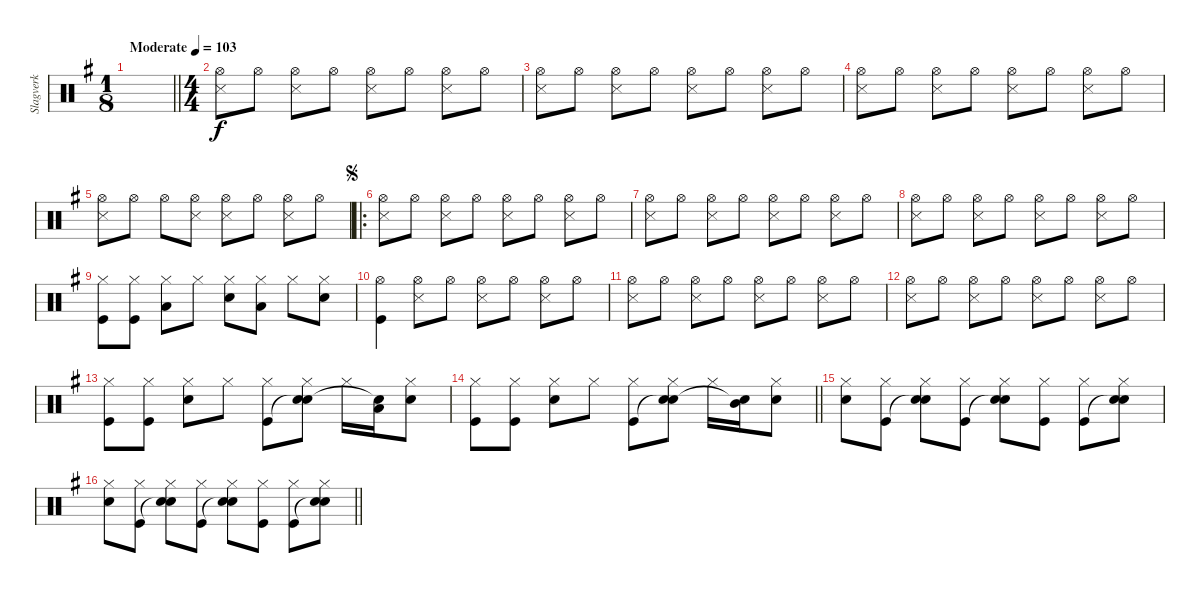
\track ("Slagverk" "Slagverk") {instrument percussion}
\staff {score}
\articulation defaults
\ts (1 8)
\tempo (103 "Moderate")
\clef neutral
\barLineRight lightlight
\ks g
|
\ts (4 4)
("Snare (side stick) 3" "Hi-Hat (open)").8 "Hi-Hat (open)".8 ("Snare (side stick) 3" "Hi-Hat (open)").8 "Hi-Hat (open)".8 ("Snare (side stick) 3" "Hi-Hat (open)").8 "Hi-Hat (open)".8 ("Snare (side stick) 3" "Hi-Hat (open)").8 "Hi-Hat (open)".8 |
("Snare (side stick) 3" "Hi-Hat (open)").8 "Hi-Hat (open)".8 ("Snare (side stick) 3" "Hi-Hat (open)").8 "Hi-Hat (open)".8 ("Snare (side stick) 3" "Hi-Hat (open)").8 "Hi-Hat (open)".8 ("Snare (side stick) 3" "Hi-Hat (open)").8 "Hi-Hat (open)".8 |
("Snare (side stick) 3" "Hi-Hat (open)").8 "Hi-Hat (open)".8 ("Snare (side stick) 3" "Hi-Hat (open)").8 "Hi-Hat (open)".8 ("Snare (side stick) 3" "Hi-Hat (open)").8 "Hi-Hat (open)".8 ("Snare (side stick) 3" "Hi-Hat (open)").8 "Hi-Hat (open)".8 |
("Snare (side stick) 3" "Hi-Hat (open)").8 "Hi-Hat (open)".8 "Hi-Hat (open)".8 ("Snare (side stick) 3" "Hi-Hat (open)").8 ("Snare (side stick) 3" "Hi-Hat (open)").8 "Hi-Hat (open)".8 ("Snare (side stick) 3" "Hi-Hat (open)").8 "Hi-Hat (open)".8 |
\ro
\jump segno
("Snare (side stick) 3" "Hi-Hat (open)").8 "Hi-Hat (open)".8 ("Snare (side stick) 3" "Hi-Hat (open)").8 "Hi-Hat (open)".8 ("Snare (side stick) 3" "Hi-Hat (open)").8 "Hi-Hat (open)".8 ("Snare (side stick) 3" "Hi-Hat (open)").8 "Hi-Hat (open)".8 |
("Snare (side stick) 3" "Hi-Hat (open)").8 "Hi-Hat (open)".8 ("Snare (side stick) 3" "Hi-Hat (open)").8 "Hi-Hat (open)".8 ("Snare (side stick) 3" "Hi-Hat (open)").8 "Hi-Hat (open)".8 ("Snare (side stick) 3" "Hi-Hat (open)").8 "Hi-Hat (open)".8 |
("Snare (side stick) 3" "Hi-Hat (open)").8 "Hi-Hat (open)".8 ("Snare (side stick) 3" "Hi-Hat (open)").8 "Hi-Hat (open)".8 ("Snare (side stick) 3" "Hi-Hat (open)").8 "Hi-Hat (open)".8 ("Snare (side stick) 3" "Hi-Hat (open)").8 "Hi-Hat (open)".8 |
("Kick (hit)" "Hi-Hat (closed)").8 ("Kick (hit)" "Hi-Hat (closed)").8 ("Low Tom (hit)" "Hi-Hat (closed)").8 "Hi-Hat (closed)".8 ("Snare (hit) 2" "Hi-Hat (closed)").8 ("Low Tom (hit)" "Hi-Hat (closed)").8 "Hi-Hat (closed)".8 ("Snare (hit) 2" "Hi-Hat (closed)").8 |
("Kick (hit)" "Hi-Hat (open)").4 ("Snare (side stick) 3" "Hi-Hat (open)").8 "Hi-Hat (open)".8 ("Snare (side stick) 3" "Hi-Hat (open)").8 "Hi-Hat (open)".8 ("Snare (side stick) 3" "Hi-Hat (open)").8 "Hi-Hat (open)".8 |
("Snare (side stick) 3" "Hi-Hat (open)").8 "Hi-Hat (open)".8 ("Snare (side stick) 3" "Hi-Hat (open)").8 "Hi-Hat (open)".8 ("Snare (side stick) 3" "Hi-Hat (open)").8 "Hi-Hat (open)".8 ("Snare (side stick) 3" "Hi-Hat (open)").8 "Hi-Hat (open)".8 |
("Snare (side stick) 3" "Hi-Hat (open)").8 "Hi-Hat (open)".8 ("Snare (side stick) 3" "Hi-Hat (open)").8 "Hi-Hat (open)".8 ("Snare (side stick) 3" "Hi-Hat (open)").8 "Hi-Hat (open)".8 ("Snare (side stick) 3" "Hi-Hat (open)").8 "Hi-Hat (open)".8 |
("Kick (hit)" "Hi-Hat (closed)").8 ("Kick (hit)" "Hi-Hat (closed)").8 ("Snare (hit) 2" "Hi-Hat (closed)").8 "Hi-Hat (closed)".8 ("Kick (hit)" "Hi-Hat (closed)").8 ("Snare (hit)"{t} "Snare (hit) 2" "Hi-Hat (closed)").8 "Hi-Hat (closed)".16 ("Low Tom (hit)" "Snare (hit)"{t}).16 ("Snare (hit) 2" "Hi-Hat (closed)").8 |
\barLineRight lightlight
("Kick (hit)" "Hi-Hat (closed)").8 ("Kick (hit)" "Hi-Hat (closed)").8 ("Snare (hit) 2" "Hi-Hat (closed)").8 "Hi-Hat (closed)".8 ("Kick (hit)" "Hi-Hat (closed)").8 ("Snare (hit)"{t} "Snare (hit) 2" "Hi-Hat (closed)").8 "Hi-Hat (closed)".16 ("Mid Tom (hit)" "Snare (hit)"{t}).16 ("Snare (hit) 2" "Hi-Hat (closed)").8 |
("Snare (hit) 2" "Hi-Hat (closed)").8 ("Kick (hit)" "Hi-Hat (closed)").8 ("Snare (hit)"{t} "Snare (hit) 2" "Hi-Hat (closed)").8 ("Kick (hit)" "Hi-Hat (closed)").8 ("Snare (hit)"{t} "Snare (hit) 2" "Hi-Hat (closed)").8 ("Kick (hit)" "Hi-Hat (closed)").8 ("Kick (hit)" "Hi-Hat (closed)").8 ("Snare (hit)"{t} "Snare (hit) 2" "Hi-Hat (closed)").8 |
\barLineRight lightlight
("Snare (hit) 2" "Hi-Hat (closed)").8 ("Kick (hit)" "Hi-Hat (closed)").8 ("Snare (hit)"{t} "Snare (hit) 2" "Hi-Hat (closed)").8 ("Kick (hit)" "Hi-Hat (closed)").8 ("Snare (hit)"{t} "Snare (hit) 2" "Hi-Hat (closed)").8 ("Kick (hit)" "Hi-Hat (closed)").8 ("Kick (hit)" "Hi-Hat (closed)").8 ("Snare (hit)"{t} "Snare (hit) 2" "Hi-Hat (closed)").8
